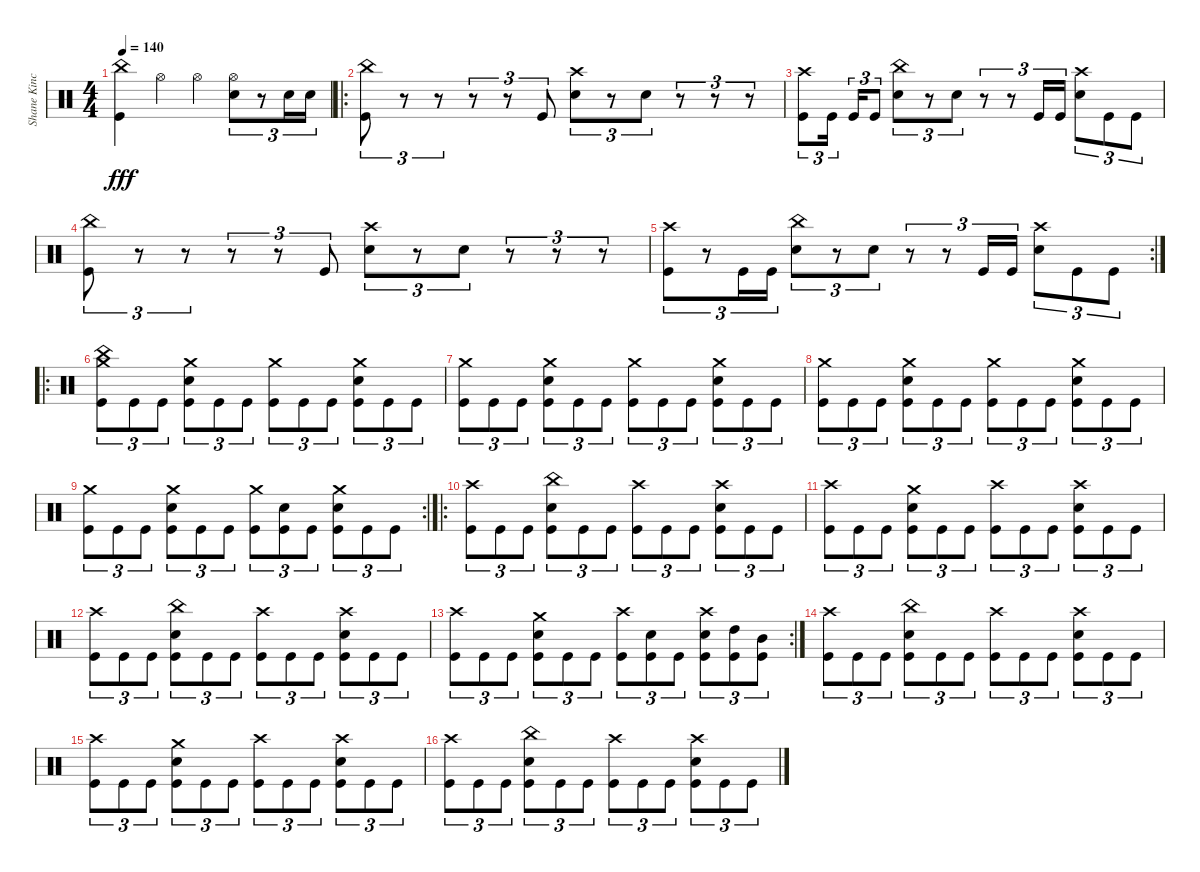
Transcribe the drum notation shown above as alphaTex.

\track ("Shane Kincaid" "Shane Kinc") {instrument percussion}
\staff {score}
\articulation defaults
\ts (4 4)
\tempo 140
\clef neutral
\ks c
("China (hit)" "Kick (hit)").4{dy fff} "Hi-Hat (open)".4 "Hi-Hat (open)".4 ("Hi-Hat (open)" "Electric Snare (hit)").8{tu (3 2)} r.8{tu (3 2)} "Electric Snare (hit)".16{tu (3 2)} "Electric Snare (hit)".16{tu (3 2)} |
\ro
("China (hit)" "Kick (hit)").8{tu (3 2)} r.8{tu (3 2)} r.8{tu (3 2)} r.8{tu (3 2)} r.8{tu (3 2)} "Kick (hit)".8{tu (3 2)} ("Crash high (hit)" "Electric Snare (hit)").8{tu (3 2)} r.8{tu (3 2)} "Electric Snare (hit)".8{tu (3 2)} r.8{tu (3 2)} r.8{tu (3 2)} r.8{tu (3 2)} |
("Crash high (hit)" "Kick (hit)").8{tu (3 2)} "Kick (hit)".16{tu (3 2) beam splitsecondary} "Kick (hit)".16{tu (3 2)} "Kick (hit)".8{tu (3 2)} ("China (hit)" "Electric Snare (hit)").8{tu (3 2)} r.8{tu (3 2)} "Electric Snare (hit)".8{tu (3 2)} r.8{tu (3 2)} r.8{tu (3 2)} "Kick (hit)".16{tu (3 2)} "Kick (hit)".16{tu (3 2)} ("Crash high (hit)" "Electric Snare (hit)").8{tu (3 2)} "Kick (hit)".8{tu (3 2)} "Kick (hit)".8{tu (3 2)} |
("China (hit)" "Kick (hit)").8{tu (3 2)} r.8{tu (3 2)} r.8{tu (3 2)} r.8{tu (3 2)} r.8{tu (3 2)} "Kick (hit)".8{tu (3 2)} ("Crash high (hit)" "Electric Snare (hit)").8{tu (3 2)} r.8{tu (3 2)} "Electric Snare (hit)".8{tu (3 2)} r.8{tu (3 2)} r.8{tu (3 2)} r.8{tu (3 2)} |
\rc 2
("Crash high (hit)" "Kick (hit)").8{tu (3 2)} r.8{tu (3 2)} "Kick (hit)".16{tu (3 2)} "Kick (hit)".16{tu (3 2)} ("China (hit)" "Electric Snare (hit)").8{tu (3 2)} r.8{tu (3 2)} "Electric Snare (hit)".8{tu (3 2)} r.8{tu (3 2)} r.8{tu (3 2)} "Kick (hit)".16{tu (3 2)} "Kick (hit)".16{tu (3 2)} ("Crash high (hit)" "Electric Snare (hit)").8{tu (3 2)} "Kick (hit)".8{tu (3 2)} "Kick (hit)".8{tu (3 2)} |
\ro
("Crash medium (hit)" "China (hit)" "Kick (hit)").8{tu (3 2)} "Kick (hit)".8{tu (3 2)} "Kick (hit)".8{tu (3 2)} ("Crash medium (hit)" "Electric Snare (hit)" "Kick (hit)").8{tu (3 2)} "Kick (hit)".8{tu (3 2)} "Kick (hit)".8{tu (3 2)} ("Crash medium (hit)" "Kick (hit)").8{tu (3 2)} "Kick (hit)".8{tu (3 2)} "Kick (hit)".8{tu (3 2)} ("Crash medium (hit)" "Electric Snare (hit)" "Kick (hit)").8{tu (3 2)} "Kick (hit)".8{tu (3 2)} "Kick (hit)".8{tu (3 2)} |
("Crash medium (hit)" "Kick (hit)").8{tu (3 2)} "Kick (hit)".8{tu (3 2)} "Kick (hit)".8{tu (3 2)} ("Crash medium (hit)" "Electric Snare (hit)" "Kick (hit)").8{tu (3 2)} "Kick (hit)".8{tu (3 2)} "Kick (hit)".8{tu (3 2)} ("Crash medium (hit)" "Kick (hit)").8{tu (3 2)} "Kick (hit)".8{tu (3 2)} "Kick (hit)".8{tu (3 2)} ("Crash medium (hit)" "Electric Snare (hit)" "Kick (hit)").8{tu (3 2)} "Kick (hit)".8{tu (3 2)} "Kick (hit)".8{tu (3 2)} |
("Crash medium (hit)" "Kick (hit)").8{tu (3 2)} "Kick (hit)".8{tu (3 2)} "Kick (hit)".8{tu (3 2)} ("Crash medium (hit)" "Electric Snare (hit)" "Kick (hit)").8{tu (3 2)} "Kick (hit)".8{tu (3 2)} "Kick (hit)".8{tu (3 2)} ("Crash medium (hit)" "Kick (hit)").8{tu (3 2)} "Kick (hit)".8{tu (3 2)} "Kick (hit)".8{tu (3 2)} ("Crash medium (hit)" "Electric Snare (hit)" "Kick (hit)").8{tu (3 2)} "Kick (hit)".8{tu (3 2)} "Kick (hit)".8{tu (3 2)} |
\rc 2
("Crash medium (hit)" "Kick (hit)").8{tu (3 2)} "Kick (hit)".8{tu (3 2)} "Kick (hit)".8{tu (3 2)} ("Crash medium (hit)" "Electric Snare (hit)" "Kick (hit)").8{tu (3 2)} "Kick (hit)".8{tu (3 2)} "Kick (hit)".8{tu (3 2)} ("Crash medium (hit)" "Kick (hit)").8{tu (3 2)} ("Electric Snare (hit)" "Kick (hit)").8{tu (3 2)} "Kick (hit)".8{tu (3 2)} ("Crash medium (hit)" "Electric Snare (hit)" "Kick (hit)").8{tu (3 2)} "Kick (hit)".8{tu (3 2)} "Kick (hit)".8{tu (3 2)} |
\ro
("Crash high (hit)" "Kick (hit)").8{tu (3 2)} "Kick (hit)".8{tu (3 2)} "Kick (hit)".8{tu (3 2)} ("China (hit)" "Electric Snare (hit)" "Kick (hit)").8{tu (3 2)} "Kick (hit)".8{tu (3 2)} "Kick (hit)".8{tu (3 2)} ("Crash high (hit)" "Kick (hit)").8{tu (3 2)} "Kick (hit)".8{tu (3 2)} "Kick (hit)".8{tu (3 2)} ("Crash high (hit)" "Electric Snare (hit)" "Kick (hit)").8{tu (3 2)} "Kick (hit)".8{tu (3 2)} "Kick (hit)".8{tu (3 2)} |
("Crash high (hit)" "Kick (hit)").8{tu (3 2)} "Kick (hit)".8{tu (3 2)} "Kick (hit)".8{tu (3 2)} ("Crash medium (hit)" "Electric Snare (hit)" "Kick (hit)").8{tu (3 2)} "Kick (hit)".8{tu (3 2)} "Kick (hit)".8{tu (3 2)} ("Crash high (hit)" "Kick (hit)").8{tu (3 2)} "Kick (hit)".8{tu (3 2)} "Kick (hit)".8{tu (3 2)} ("Crash high (hit)" "Electric Snare (hit)" "Kick (hit)").8{tu (3 2)} "Kick (hit)".8{tu (3 2)} "Kick (hit)".8{tu (3 2)} |
("Crash high (hit)" "Kick (hit)").8{tu (3 2)} "Kick (hit)".8{tu (3 2)} "Kick (hit)".8{tu (3 2)} ("China (hit)" "Electric Snare (hit)" "Kick (hit)").8{tu (3 2)} "Kick (hit)".8{tu (3 2)} "Kick (hit)".8{tu (3 2)} ("Crash high (hit)" "Kick (hit)").8{tu (3 2)} "Kick (hit)".8{tu (3 2)} "Kick (hit)".8{tu (3 2)} ("Crash high (hit)" "Electric Snare (hit)" "Kick (hit)").8{tu (3 2)} "Kick (hit)".8{tu (3 2)} "Kick (hit)".8{tu (3 2)} |
\rc 2
("Crash high (hit)" "Kick (hit)").8{tu (3 2)} "Kick (hit)".8{tu (3 2)} "Kick (hit)".8{tu (3 2)} ("Crash medium (hit)" "Kick (hit)" "Electric Snare (hit)").8{tu (3 2)} "Kick (hit)".8{tu (3 2)} "Kick (hit)".8{tu (3 2)} ("Crash high (hit)" "Kick (hit)").8{tu (3 2)} ("Kick (hit)" "Electric Snare (hit)").8{tu (3 2)} "Kick (hit)".8{tu (3 2)} ("Crash high (hit)" "Kick (hit)" "Electric Snare (hit)").8{tu (3 2)} ("High Tom (hit)" "Kick (hit)").8{tu (3 2)} ("Mid Tom (hit)" "Kick (hit)").8{tu (3 2)} |
("Crash high (hit)" "Kick (hit)").8{tu (3 2)} "Kick (hit)".8{tu (3 2)} "Kick (hit)".8{tu (3 2)} ("China (hit)" "Electric Snare (hit)" "Kick (hit)").8{tu (3 2)} "Kick (hit)".8{tu (3 2)} "Kick (hit)".8{tu (3 2)} ("Crash high (hit)" "Kick (hit)").8{tu (3 2)} "Kick (hit)".8{tu (3 2)} "Kick (hit)".8{tu (3 2)} ("Crash high (hit)" "Electric Snare (hit)" "Kick (hit)").8{tu (3 2)} "Kick (hit)".8{tu (3 2)} "Kick (hit)".8{tu (3 2)} |
("Crash high (hit)" "Kick (hit)").8{tu (3 2)} "Kick (hit)".8{tu (3 2)} "Kick (hit)".8{tu (3 2)} ("Crash medium (hit)" "Electric Snare (hit)" "Kick (hit)").8{tu (3 2)} "Kick (hit)".8{tu (3 2)} "Kick (hit)".8{tu (3 2)} ("Crash high (hit)" "Kick (hit)").8{tu (3 2)} "Kick (hit)".8{tu (3 2)} "Kick (hit)".8{tu (3 2)} ("Crash high (hit)" "Electric Snare (hit)" "Kick (hit)").8{tu (3 2)} "Kick (hit)".8{tu (3 2)} "Kick (hit)".8{tu (3 2)} |
("Crash high (hit)" "Kick (hit)").8{tu (3 2)} "Kick (hit)".8{tu (3 2)} "Kick (hit)".8{tu (3 2)} ("China (hit)" "Electric Snare (hit)" "Kick (hit)").8{tu (3 2)} "Kick (hit)".8{tu (3 2)} "Kick (hit)".8{tu (3 2)} ("Crash high (hit)" "Kick (hit)").8{tu (3 2)} "Kick (hit)".8{tu (3 2)} "Kick (hit)".8{tu (3 2)} ("Crash high (hit)" "Electric Snare (hit)" "Kick (hit)").8{tu (3 2)} "Kick (hit)".8{tu (3 2)} "Kick (hit)".8{tu (3 2)}
